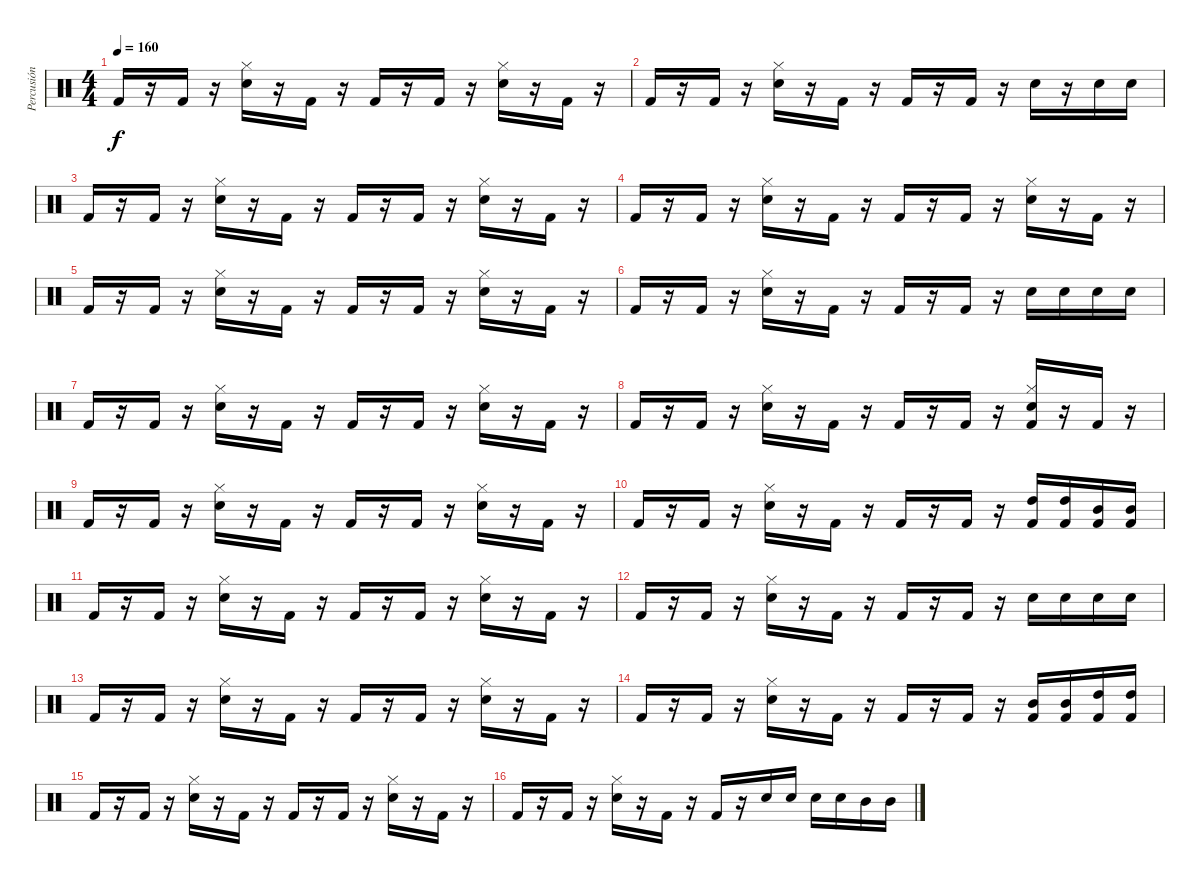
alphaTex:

\track ("Percusión" "Percusión") {instrument percussion}
\staff {score}
\articulation defaults
\ts (4 4)
\tempo 160
\clef neutral
\ks c "Kick (hit) 2".16{dy f}
r.16 "Kick (hit) 2".16 r.16 ("Hi-Hat (closed)" "Snare (hit) 2").16 r.16 "Kick (hit) 2".16 r.16 "Kick (hit) 2".16 r.16 "Kick (hit) 2".16 r.16 ("Hi-Hat (closed)" "Snare (hit) 2").16 r.16 "Kick (hit) 2".16 r.16 |
"Kick (hit) 2".16 r.16 "Kick (hit) 2".16 r.16 ("Hi-Hat (closed)" "Snare (hit) 2").16 r.16 "Kick (hit) 2".16 r.16 "Kick (hit) 2".16 r.16 "Kick (hit) 2".16 r.16 "Snare (hit) 2".16 r.16 "Snare (hit) 2".16 "Snare (hit) 2".16 |
"Kick (hit) 2".16 r.16 "Kick (hit) 2".16 r.16 ("Hi-Hat (closed)" "Snare (hit) 2").16 r.16 "Kick (hit) 2".16 r.16 "Kick (hit) 2".16 r.16 "Kick (hit) 2".16 r.16 ("Hi-Hat (closed)" "Snare (hit) 2").16 r.16 "Kick (hit) 2".16 r.16 |
"Kick (hit) 2".16 r.16 "Kick (hit) 2".16 r.16 ("Hi-Hat (closed)" "Snare (hit) 2").16 r.16 "Kick (hit) 2".16 r.16 "Kick (hit) 2".16 r.16 "Kick (hit) 2".16 r.16 ("Hi-Hat (closed)" "Snare (hit) 2").16 r.16 "Kick (hit) 2".16 r.16 |
"Kick (hit) 2".16 r.16 "Kick (hit) 2".16 r.16 ("Hi-Hat (closed)" "Snare (hit) 2").16 r.16 "Kick (hit) 2".16 r.16 "Kick (hit) 2".16 r.16 "Kick (hit) 2".16 r.16 ("Hi-Hat (closed)" "Snare (hit) 2").16 r.16 "Kick (hit) 2".16 r.16 |
"Kick (hit) 2".16 r.16 "Kick (hit) 2".16 r.16 ("Hi-Hat (closed)" "Snare (hit) 2").16 r.16 "Kick (hit) 2".16 r.16 "Kick (hit) 2".16 r.16 "Kick (hit) 2".16 r.16 "Snare (hit) 2".16 "Snare (hit) 2".16 "Snare (hit) 2".16 "Snare (hit) 2".16 |
"Kick (hit) 2".16 r.16 "Kick (hit) 2".16 r.16 ("Hi-Hat (closed)" "Snare (hit) 2").16 r.16 "Kick (hit) 2".16 r.16 "Kick (hit) 2".16 r.16 "Kick (hit) 2".16 r.16 ("Hi-Hat (closed)" "Snare (hit) 2").16 r.16 "Kick (hit) 2".16 r.16 |
"Kick (hit) 2".16 r.16 "Kick (hit) 2".16 r.16 ("Hi-Hat (closed)" "Snare (hit) 2").16 r.16 "Kick (hit) 2".16 r.16 "Kick (hit) 2".16 r.16 "Kick (hit) 2".16 r.16 ("Hi-Hat (closed)" "Snare (hit) 2" "Kick (hit) 2").16 r.16 "Kick (hit) 2".16 r.16 |
"Kick (hit) 2".16 r.16 "Kick (hit) 2".16 r.16 ("Hi-Hat (closed)" "Snare (hit) 2").16 r.16 "Kick (hit) 2".16 r.16 "Kick (hit) 2".16 r.16 "Kick (hit) 2".16 r.16 ("Hi-Hat (closed)" "Snare (hit) 2").16 r.16 "Kick (hit) 2".16 r.16 |
"Kick (hit) 2".16 r.16 "Kick (hit) 2".16 r.16 ("Hi-Hat (closed)" "Snare (hit) 2").16 r.16 "Kick (hit) 2".16 r.16 "Kick (hit) 2".16 r.16 "Kick (hit) 2".16 r.16 ("High Tom (hit)" "Kick (hit) 2").16 ("High Tom (hit)" "Kick (hit) 2").16 ("Mid Tom (hit)" "Kick (hit) 2").16 ("Mid Tom (hit)" "Kick (hit) 2").16 |
"Kick (hit) 2".16 r.16 "Kick (hit) 2".16 r.16 ("Hi-Hat (closed)" "Snare (hit) 2").16 r.16 "Kick (hit) 2".16 r.16 "Kick (hit) 2".16 r.16 "Kick (hit) 2".16 r.16 ("Hi-Hat (closed)" "Snare (hit) 2").16 r.16 "Kick (hit) 2".16 r.16 |
"Kick (hit) 2".16 r.16 "Kick (hit) 2".16 r.16 ("Hi-Hat (closed)" "Snare (hit) 2").16 r.16 "Kick (hit) 2".16 r.16 "Kick (hit) 2".16 r.16 "Kick (hit) 2".16 r.16 "Snare (hit) 2".16 "Snare (hit) 2".16 "Snare (hit) 2".16 "Snare (hit) 2".16 |
"Kick (hit) 2".16 r.16 "Kick (hit) 2".16 r.16 ("Hi-Hat (closed)" "Snare (hit) 2").16 r.16 "Kick (hit) 2".16 r.16 "Kick (hit) 2".16 r.16 "Kick (hit) 2".16 r.16 ("Hi-Hat (closed)" "Snare (hit) 2").16 r.16 "Kick (hit) 2".16 r.16 |
"Kick (hit) 2".16 r.16 "Kick (hit) 2".16 r.16 ("Hi-Hat (closed)" "Snare (hit) 2").16 r.16 "Kick (hit) 2".16 r.16 "Kick (hit) 2".16 r.16 "Kick (hit) 2".16 r.16 ("Mid Tom (hit)" "Kick (hit) 2").16 ("Mid Tom (hit)" "Kick (hit) 2").16 ("High Tom (hit)" "Kick (hit) 2").16 ("High Tom (hit)" "Kick (hit) 2").16 |
"Kick (hit) 2".16 r.16 "Kick (hit) 2".16 r.16 ("Hi-Hat (closed)" "Snare (hit) 2").16 r.16 "Kick (hit) 2".16 r.16 "Kick (hit) 2".16 r.16 "Kick (hit) 2".16 r.16 ("Hi-Hat (closed)" "Snare (hit) 2").16 r.16 "Kick (hit) 2".16 r.16 |
"Kick (hit) 2".16 r.16 "Kick (hit) 2".16 r.16 ("Hi-Hat (closed)" "Snare (hit) 2").16 r.16 "Kick (hit) 2".16 r.16 "Kick (hit) 2".16 r.16 "Snare (hit) 2".16 "Snare (hit) 2".16 "Snare (hit) 2".16 "Snare (hit) 2".16 "Mid Tom (hit)".16 "Mid Tom (hit)".16
